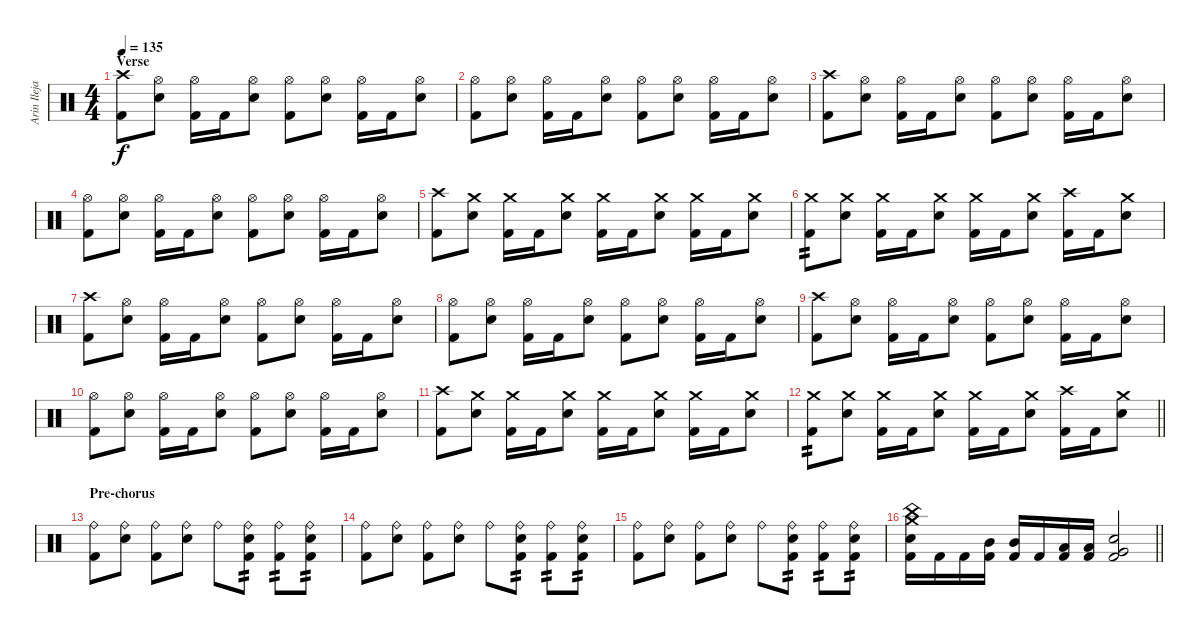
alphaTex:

\track ("Arin Ilejay" "Arin Ileja") {instrument percussion}
\staff {score}
\articulation defaults
\ts (4 4)
\section ("" "Verse")
\tempo 135
\clef neutral
\ks c
("Crash high (hit)" "Kick (hit) 2").8{dy f} ("Hi-Hat (open)" "Electric Snare (hit)").8 ("Hi-Hat (open)" "Kick (hit) 2").16 "Kick (hit) 2".16 ("Hi-Hat (open)" "Electric Snare (hit)").8 ("Hi-Hat (open)" "Kick (hit) 2").8 ("Hi-Hat (open)" "Electric Snare (hit)").8 ("Hi-Hat (open)" "Kick (hit) 2").16 "Kick (hit) 2".16 ("Hi-Hat (open)" "Electric Snare (hit)").8 |
("Hi-Hat (open)" "Kick (hit) 2").8 ("Hi-Hat (open)" "Electric Snare (hit)").8 ("Hi-Hat (open)" "Kick (hit) 2").16 "Kick (hit) 2".16 ("Hi-Hat (open)" "Electric Snare (hit)").8 ("Hi-Hat (open)" "Kick (hit) 2").8 ("Hi-Hat (open)" "Electric Snare (hit)").8 ("Hi-Hat (open)" "Kick (hit) 2").16 "Kick (hit) 2".16 ("Hi-Hat (open)" "Electric Snare (hit)").8 |
("Crash high (hit)" "Kick (hit) 2").8 ("Hi-Hat (open)" "Electric Snare (hit)").8 ("Hi-Hat (open)" "Kick (hit) 2").16 "Kick (hit) 2".16 ("Hi-Hat (open)" "Electric Snare (hit)").8 ("Hi-Hat (open)" "Kick (hit) 2").8 ("Hi-Hat (open)" "Electric Snare (hit)").8 ("Hi-Hat (open)" "Kick (hit) 2").16 "Kick (hit) 2".16 ("Hi-Hat (open)" "Electric Snare (hit)").8 |
("Hi-Hat (open)" "Kick (hit) 2").8 ("Hi-Hat (open)" "Electric Snare (hit)").8 ("Hi-Hat (open)" "Kick (hit) 2").16 "Kick (hit) 2".16 ("Hi-Hat (open)" "Electric Snare (hit)").8 ("Hi-Hat (open)" "Kick (hit) 2").8 ("Hi-Hat (open)" "Electric Snare (hit)").8 ("Hi-Hat (open)" "Kick (hit) 2").16 "Kick (hit) 2".16 ("Hi-Hat (open)" "Electric Snare (hit)").8 |
("Crash high (hit)" "Kick (hit) 2").8 ("Crash medium (hit)" "Electric Snare (hit)").8 ("Crash medium (hit)" "Kick (hit) 2").16 "Kick (hit) 2".16 ("Crash medium (hit)" "Electric Snare (hit)").8 ("Crash medium (hit)" "Kick (hit) 2").16 "Kick (hit) 2".16 ("Crash medium (hit)" "Electric Snare (hit)").8 ("Crash medium (hit)" "Kick (hit) 2").16 "Kick (hit) 2".16 ("Crash medium (hit)" "Electric Snare (hit)").8 |
("Crash medium (hit)" "Kick (hit) 2").8{tp 2} ("Crash medium (hit)" "Electric Snare (hit)").8 ("Crash medium (hit)" "Kick (hit) 2").16 "Kick (hit) 2".16 ("Crash medium (hit)" "Electric Snare (hit)").8 ("Crash medium (hit)" "Kick (hit) 2").16 "Kick (hit) 2".16 ("Crash medium (hit)" "Electric Snare (hit)").8 ("Crash high (hit)" "Kick (hit) 2").16 "Kick (hit) 2".16 ("Crash medium (hit)" "Electric Snare (hit)").8 |
("Crash high (hit)" "Kick (hit) 2").8 ("Hi-Hat (open)" "Electric Snare (hit)").8 ("Hi-Hat (open)" "Kick (hit) 2").16 "Kick (hit) 2".16 ("Hi-Hat (open)" "Electric Snare (hit)").8 ("Hi-Hat (open)" "Kick (hit) 2").8 ("Hi-Hat (open)" "Electric Snare (hit)").8 ("Hi-Hat (open)" "Kick (hit) 2").16 "Kick (hit) 2".16 ("Hi-Hat (open)" "Electric Snare (hit)").8 |
("Hi-Hat (open)" "Kick (hit) 2").8 ("Hi-Hat (open)" "Electric Snare (hit)").8 ("Hi-Hat (open)" "Kick (hit) 2").16 "Kick (hit) 2".16 ("Hi-Hat (open)" "Electric Snare (hit)").8 ("Hi-Hat (open)" "Kick (hit) 2").8 ("Hi-Hat (open)" "Electric Snare (hit)").8 ("Hi-Hat (open)" "Kick (hit) 2").16 "Kick (hit) 2".16 ("Hi-Hat (open)" "Electric Snare (hit)").8 |
("Crash high (hit)" "Kick (hit) 2").8 ("Hi-Hat (open)" "Electric Snare (hit)").8 ("Hi-Hat (open)" "Kick (hit) 2").16 "Kick (hit) 2".16 ("Hi-Hat (open)" "Electric Snare (hit)").8 ("Hi-Hat (open)" "Kick (hit) 2").8 ("Hi-Hat (open)" "Electric Snare (hit)").8 ("Hi-Hat (open)" "Kick (hit) 2").16 "Kick (hit) 2".16 ("Hi-Hat (open)" "Electric Snare (hit)").8 |
("Hi-Hat (open)" "Kick (hit) 2").8 ("Hi-Hat (open)" "Electric Snare (hit)").8 ("Hi-Hat (open)" "Kick (hit) 2").16 "Kick (hit) 2".16 ("Hi-Hat (open)" "Electric Snare (hit)").8 ("Hi-Hat (open)" "Kick (hit) 2").8 ("Hi-Hat (open)" "Electric Snare (hit)").8 ("Hi-Hat (open)" "Kick (hit) 2").16 "Kick (hit) 2".16 ("Hi-Hat (open)" "Electric Snare (hit)").8 |
("Crash high (hit)" "Kick (hit) 2").8 ("Crash medium (hit)" "Electric Snare (hit)").8 ("Crash medium (hit)" "Kick (hit) 2").16 "Kick (hit) 2".16 ("Crash medium (hit)" "Electric Snare (hit)").8 ("Crash medium (hit)" "Kick (hit) 2").16 "Kick (hit) 2".16 ("Crash medium (hit)" "Electric Snare (hit)").8 ("Crash medium (hit)" "Kick (hit) 2").16 "Kick (hit) 2".16 ("Crash medium (hit)" "Electric Snare (hit)").8 |
\barLineRight lightlight
("Crash medium (hit)" "Kick (hit) 2").8{tp 2} ("Crash medium (hit)" "Electric Snare (hit)").8 ("Crash medium (hit)" "Kick (hit) 2").16 "Kick (hit) 2".16 ("Crash medium (hit)" "Electric Snare (hit)").8 ("Crash medium (hit)" "Kick (hit) 2").16 "Kick (hit) 2".16 ("Crash medium (hit)" "Electric Snare (hit)").8 ("Crash high (hit)" "Kick (hit) 2").16 "Kick (hit) 2".16 ("Crash medium (hit)" "Electric Snare (hit)").8 |
\section ("" "Pre-chorus")
("Ride (bell)" "Kick (hit) 2").8 ("Ride (bell)" "Electric Snare (hit)").8 ("Ride (bell)" "Kick (hit) 2").8 ("Ride (bell)" "Electric Snare (hit)").8 "Ride (bell)".8 ("Ride (bell)" "Electric Snare (hit)" "Kick (hit) 2").8{tp 2} ("Ride (bell)" "Kick (hit) 2").8{tp 2} ("Ride (bell)" "Electric Snare (hit)" "Kick (hit) 2").8{tp 2} |
("Ride (bell)" "Kick (hit) 2").8 ("Ride (bell)" "Electric Snare (hit)").8 ("Ride (bell)" "Kick (hit) 2").8 ("Ride (bell)" "Electric Snare (hit)").8 "Ride (bell)".8 ("Ride (bell)" "Electric Snare (hit)" "Kick (hit) 2").8{tp 2} ("Ride (bell)" "Kick (hit) 2").8{tp 2} ("Ride (bell)" "Electric Snare (hit)" "Kick (hit) 2").8{tp 2} |
("Ride (bell)" "Kick (hit) 2").8 ("Ride (bell)" "Electric Snare (hit)").8 ("Ride (bell)" "Kick (hit) 2").8 ("Ride (bell)" "Electric Snare (hit)").8 "Ride (bell)".8 ("Ride (bell)" "Electric Snare (hit)" "Kick (hit) 2").8{tp 2} ("Ride (bell)" "Kick (hit) 2").8{tp 2} ("Ride (bell)" "Electric Snare (hit)" "Kick (hit) 2").8{tp 2} |
\barLineRight lightlight
("Crash medium (hit)" "China (hit)" "Electric Snare (hit)" "Kick (hit) 2").16 "Kick (hit) 2".16 "Kick (hit) 2".16 ("Mid Tom (hit)" "Kick (hit) 2").16 ("Mid Tom (hit)" "Kick (hit) 2").16 "Kick (hit) 2".16 ("Low Tom (hit)" "Kick (hit) 2").16 ("Low Tom (hit)" "Kick (hit) 2").16 ("Electric Snare (hit)" "Very Low Tom (hit)" "Kick (hit) 2").2
